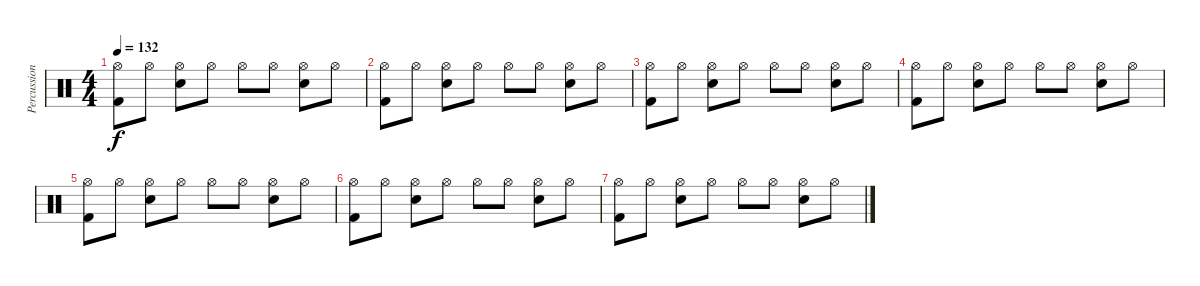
\track ("Percussion" "Percussion") {instrument percussion}
\staff {score}
\articulation defaults
\ts (4 4)
\tempo 132
\clef neutral
\ks c
("Hi-Hat (open)" "Kick (hit) 2").8{dy f} "Hi-Hat (open)".8 ("Hi-Hat (open)" "Snare (hit) 2").8 "Hi-Hat (open)".8 "Hi-Hat (open)".8 "Hi-Hat (open)".8 ("Hi-Hat (open)" "Snare (hit) 2").8 "Hi-Hat (open)".8 |
("Hi-Hat (open)" "Kick (hit) 2").8 "Hi-Hat (open)".8 ("Hi-Hat (open)" "Snare (hit) 2").8 "Hi-Hat (open)".8 "Hi-Hat (open)".8 "Hi-Hat (open)".8 ("Hi-Hat (open)" "Snare (hit) 2").8 "Hi-Hat (open)".8 |
("Hi-Hat (open)" "Kick (hit) 2").8 "Hi-Hat (open)".8 ("Hi-Hat (open)" "Snare (hit) 2").8 "Hi-Hat (open)".8 "Hi-Hat (open)".8 "Hi-Hat (open)".8 ("Hi-Hat (open)" "Snare (hit) 2").8 "Hi-Hat (open)".8 |
("Hi-Hat (open)" "Kick (hit) 2").8 "Hi-Hat (open)".8 ("Hi-Hat (open)" "Snare (hit) 2").8 "Hi-Hat (open)".8 "Hi-Hat (open)".8 "Hi-Hat (open)".8 ("Hi-Hat (open)" "Snare (hit) 2").8 "Hi-Hat (open)".8 |
("Hi-Hat (open)" "Kick (hit) 2").8 "Hi-Hat (open)".8 ("Hi-Hat (open)" "Snare (hit) 2").8 "Hi-Hat (open)".8 "Hi-Hat (open)".8 "Hi-Hat (open)".8 ("Hi-Hat (open)" "Snare (hit) 2").8 "Hi-Hat (open)".8 |
("Hi-Hat (open)" "Kick (hit) 2").8 "Hi-Hat (open)".8 ("Hi-Hat (open)" "Snare (hit) 2").8 "Hi-Hat (open)".8 "Hi-Hat (open)".8 "Hi-Hat (open)".8 ("Hi-Hat (open)" "Snare (hit) 2").8 "Hi-Hat (open)".8 |
("Hi-Hat (open)" "Kick (hit) 2").8 "Hi-Hat (open)".8 ("Hi-Hat (open)" "Snare (hit) 2").8 "Hi-Hat (open)".8 "Hi-Hat (open)".8 "Hi-Hat (open)".8 ("Hi-Hat (open)" "Snare (hit) 2").8 "Hi-Hat (open)".8
